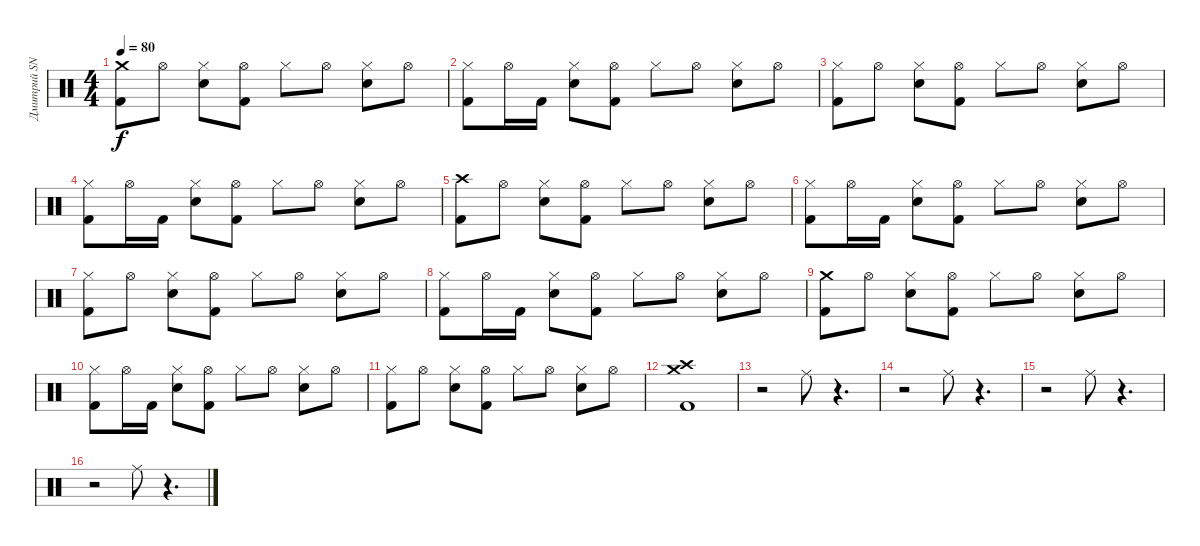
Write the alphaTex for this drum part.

\track ("Дмитрий SNAKE Хакимов" "Дмитрий SN") {instrument percussion}
\staff {score}
\articulation defaults
\ts (4 4)
\tempo 80
\clef neutral
\ks c
("Crash medium (hit)" "Kick (hit) 2").8{dy f} "Hi-Hat (open)".8 ("Hi-Hat (closed)" "Electric Snare (hit)").8 ("Hi-Hat (open)" "Kick (hit) 2").8 "Hi-Hat (closed)".8 "Hi-Hat (open)".8 ("Hi-Hat (closed)" "Electric Snare (hit)").8 "Hi-Hat (open)".8 |
("Hi-Hat (closed)" "Kick (hit) 2").8 "Hi-Hat (open)".16 "Kick (hit) 2".16 ("Hi-Hat (closed)" "Electric Snare (hit)").8 ("Hi-Hat (open)" "Kick (hit) 2").8 "Hi-Hat (closed)".8 "Hi-Hat (open)".8 ("Hi-Hat (closed)" "Electric Snare (hit)").8 "Hi-Hat (open)".8 |
("Hi-Hat (closed)" "Kick (hit) 2").8 "Hi-Hat (open)".8 ("Hi-Hat (closed)" "Electric Snare (hit)").8 ("Hi-Hat (open)" "Kick (hit) 2").8 "Hi-Hat (closed)".8 "Hi-Hat (open)".8 ("Hi-Hat (closed)" "Electric Snare (hit)").8 "Hi-Hat (open)".8 |
("Hi-Hat (closed)" "Kick (hit) 2").8 "Hi-Hat (open)".16 "Kick (hit) 2".16 ("Hi-Hat (closed)" "Electric Snare (hit)").8 ("Hi-Hat (open)" "Kick (hit) 2").8 "Hi-Hat (closed)".8 "Hi-Hat (open)".8 ("Hi-Hat (closed)" "Electric Snare (hit)").8 "Hi-Hat (open)".8 |
("Crash high (hit)" "Kick (hit) 2").8 "Hi-Hat (open)".8 ("Hi-Hat (closed)" "Electric Snare (hit)").8 ("Hi-Hat (open)" "Kick (hit) 2").8 "Hi-Hat (closed)".8 "Hi-Hat (open)".8 ("Hi-Hat (closed)" "Electric Snare (hit)").8 "Hi-Hat (open)".8 |
("Hi-Hat (closed)" "Kick (hit) 2").8 "Hi-Hat (open)".16 "Kick (hit) 2".16 ("Hi-Hat (closed)" "Electric Snare (hit)").8 ("Hi-Hat (open)" "Kick (hit) 2").8 "Hi-Hat (closed)".8 "Hi-Hat (open)".8 ("Hi-Hat (closed)" "Electric Snare (hit)").8 "Hi-Hat (open)".8 |
("Hi-Hat (closed)" "Kick (hit) 2").8 "Hi-Hat (open)".8 ("Hi-Hat (closed)" "Electric Snare (hit)").8 ("Hi-Hat (open)" "Kick (hit) 2").8 "Hi-Hat (closed)".8 "Hi-Hat (open)".8 ("Hi-Hat (closed)" "Electric Snare (hit)").8 "Hi-Hat (open)".8 |
("Hi-Hat (closed)" "Kick (hit) 2").8 "Hi-Hat (open)".16 "Kick (hit) 2".16 ("Hi-Hat (closed)" "Electric Snare (hit)").8 ("Hi-Hat (open)" "Kick (hit) 2").8 "Hi-Hat (closed)".8 "Hi-Hat (open)".8 ("Hi-Hat (closed)" "Electric Snare (hit)").8 "Hi-Hat (open)".8 |
("Crash medium (hit)" "Kick (hit) 2").8 "Hi-Hat (open)".8 ("Hi-Hat (closed)" "Electric Snare (hit)").8 ("Hi-Hat (open)" "Kick (hit) 2").8 "Hi-Hat (closed)".8 "Hi-Hat (open)".8 ("Hi-Hat (closed)" "Electric Snare (hit)").8 "Hi-Hat (open)".8 |
("Hi-Hat (closed)" "Kick (hit) 2").8 "Hi-Hat (open)".16 "Kick (hit) 2".16 ("Hi-Hat (closed)" "Electric Snare (hit)").8 ("Hi-Hat (open)" "Kick (hit) 2").8 "Hi-Hat (closed)".8 "Hi-Hat (open)".8 ("Hi-Hat (closed)" "Electric Snare (hit)").8 "Hi-Hat (open)".8 |
("Hi-Hat (closed)" "Kick (hit) 2").8 "Hi-Hat (open)".8 ("Hi-Hat (closed)" "Electric Snare (hit)").8 ("Hi-Hat (open)" "Kick (hit) 2").8 "Hi-Hat (closed)".8 "Hi-Hat (open)".8 ("Hi-Hat (closed)" "Electric Snare (hit)").8 "Hi-Hat (open)".8 |
("Crash high (hit)" "Crash medium (hit)" "Kick (hit) 2").1 |
r.2 "Ride (middle)".8 r.4{d} |
r.2 "Ride (middle)".8 r.4{d} |
r.2 "Ride (middle)".8 r.4{d} |
r.2 "Ride (middle)".8 r.4{d}
